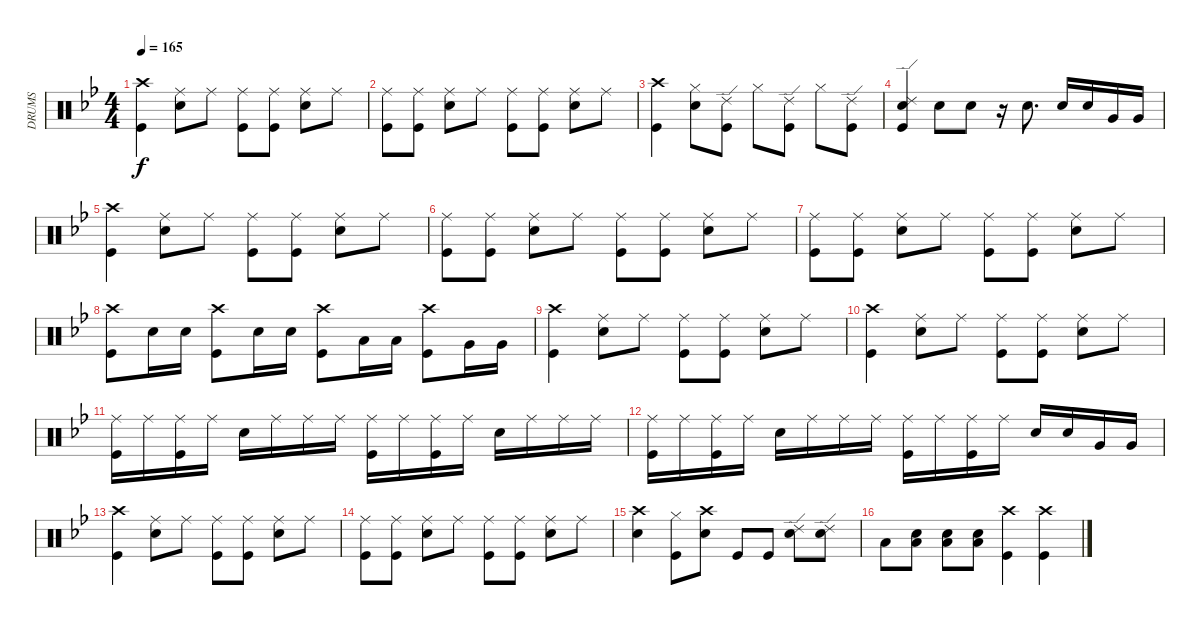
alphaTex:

\track ("DRUMS" "DRUMS") {instrument percussion}
\staff {score}
\articulation defaults
\ts (4 4)
\tempo 165
\clef neutral
\ks bb
("Crash high (hit)" "Kick (hit)").4{dy f} ("Ride (middle)" "Electric Snare (hit)").8 "Ride (middle)".8 ("Ride (middle)" "Kick (hit)").8 ("Ride (middle)" "Kick (hit)").8 ("Ride (middle)" "Electric Snare (hit)").8 "Ride (middle)".8 |
("Ride (middle)" "Kick (hit)").8 ("Ride (middle)" "Kick (hit)").8 ("Ride (middle)" "Electric Snare (hit)").8 "Ride (middle)".8 ("Ride (middle)" "Kick (hit)").8 ("Ride (middle)" "Kick (hit)").8 ("Ride (middle)" "Electric Snare (hit)").8 "Ride (middle)".8 |
("Crash high (hit)" "Kick (hit)").4 ("Hi-Hat (closed)" "Electric Snare (hit)").8 ("Ride (edge) 2" "Kick (hit)").8 "Hi-Hat (closed)".8 ("Ride (edge) 2" "Kick (hit)").8 "Hi-Hat (closed)".8 ("Ride (edge) 2" "Kick (hit)").8 |
("Ride (edge) 2" "Electric Snare (hit)" "Kick (hit)").4 "Electric Snare (hit)".8 "Electric Snare (hit)".8 r.16 "Electric Snare (hit)".8{d} "Electric Snare (hit)".16 "Electric Snare (hit)".16 "Very Low Tom (hit)".16 "Very Low Tom (hit)".16 |
("Crash high (hit)" "Kick (hit)").4 ("Ride (middle)" "Electric Snare (hit)").8 "Ride (middle)".8 ("Ride (middle)" "Kick (hit)").8 ("Ride (middle)" "Kick (hit)").8 ("Ride (middle)" "Electric Snare (hit)").8 "Ride (middle)".8 |
("Ride (middle)" "Kick (hit)").8 ("Ride (middle)" "Kick (hit)").8 ("Ride (middle)" "Electric Snare (hit)").8 "Ride (middle)".8 ("Ride (middle)" "Kick (hit)").8 ("Ride (middle)" "Kick (hit)").8 ("Ride (middle)" "Electric Snare (hit)").8 "Ride (middle)".8 |
("Ride (middle)" "Kick (hit)").8 ("Ride (middle)" "Kick (hit)").8 ("Ride (middle)" "Electric Snare (hit)").8 "Ride (middle)".8 ("Ride (middle)" "Kick (hit)").8 ("Ride (middle)" "Kick (hit)").8 ("Ride (middle)" "Electric Snare (hit)").8 "Ride (middle)".8 |
("Crash high (hit)" "Kick (hit)").8 "Electric Snare (hit)".16 "Electric Snare (hit)".16 ("Crash high (hit)" "Kick (hit)").8 "Electric Snare (hit)".16 "Electric Snare (hit)".16 ("Crash high (hit)" "Kick (hit)").8 "Low Tom (hit)".16 "Low Tom (hit)".16 ("Crash high (hit)" "Kick (hit)").8 "Very Low Tom (hit)".16 "Very Low Tom (hit)".16 |
("Crash high (hit)" "Kick (hit)").4 ("Ride (middle)" "Electric Snare (hit)").8 "Ride (middle)".8 ("Ride (middle)" "Kick (hit)").8 ("Ride (middle)" "Kick (hit)").8 ("Ride (middle)" "Electric Snare (hit)").8 "Ride (middle)".8 |
("Crash high (hit)" "Kick (hit)").4 ("Ride (middle)" "Electric Snare (hit)").8 "Ride (middle)".8 ("Ride (middle)" "Kick (hit)").8 ("Ride (middle)" "Kick (hit)").8 ("Ride (middle)" "Electric Snare (hit)").8 "Ride (middle)".8 |
("Ride (middle)" "Kick (hit)").16 "Ride (middle)".16 ("Ride (middle)" "Kick (hit)").16 "Ride (middle)".16 "Electric Snare (hit)".16 "Ride (middle)".16 "Ride (middle)".16 "Ride (middle)".16 ("Ride (middle)" "Kick (hit)").16 "Ride (middle)".16 ("Ride (middle)" "Kick (hit)").16 "Ride (middle)".16 "Electric Snare (hit)".16 "Ride (middle)".16 "Ride (middle)".16 "Ride (middle)".16 |
("Ride (middle)" "Kick (hit)").16 "Ride (middle)".16 ("Ride (middle)" "Kick (hit)").16 "Ride (middle)".16 "Electric Snare (hit)".16 "Ride (middle)".16 "Ride (middle)".16 "Ride (middle)".16 ("Ride (middle)" "Kick (hit)").16 "Ride (middle)".16 ("Ride (middle)" "Kick (hit)").16 "Ride (middle)".16 "Electric Snare (hit)".16 "Electric Snare (hit)".16 "Very Low Tom (hit)".16 "Very Low Tom (hit)".16 |
("Crash high (hit)" "Kick (hit)").4 ("Ride (middle)" "Electric Snare (hit)").8 "Ride (middle)".8 ("Ride (middle)" "Kick (hit)").8 ("Ride (middle)" "Kick (hit)").8 ("Ride (middle)" "Electric Snare (hit)").8 "Ride (middle)".8 |
("Ride (middle)" "Kick (hit)").8 ("Ride (middle)" "Kick (hit)").8 ("Ride (middle)" "Electric Snare (hit)").8 "Ride (middle)".8 ("Ride (middle)" "Kick (hit)").8 ("Ride (middle)" "Kick (hit)").8 ("Ride (middle)" "Electric Snare (hit)").8 "Ride (middle)".8 |
("Crash high (hit)" "Electric Snare (hit)").4 ("Hi-Hat (closed)" "Kick (hit)").8 ("Crash high (hit)" "Electric Snare (hit)").8 "Kick (hit)".8 "Kick (hit)".8 ("Ride (edge) 2" "Electric Snare (hit)").8 ("Ride (edge) 2" "Electric Snare (hit)").8 |
"Low Floor Tom (hit)".8 ("Electric Snare (hit)" "Low Floor Tom (hit)").8 ("Electric Snare (hit)" "Low Floor Tom (hit)").8 ("Electric Snare (hit)" "Low Floor Tom (hit)").8 ("Crash high (hit)" "Kick (hit)").4 ("Crash high (hit)" "Kick (hit)").4
